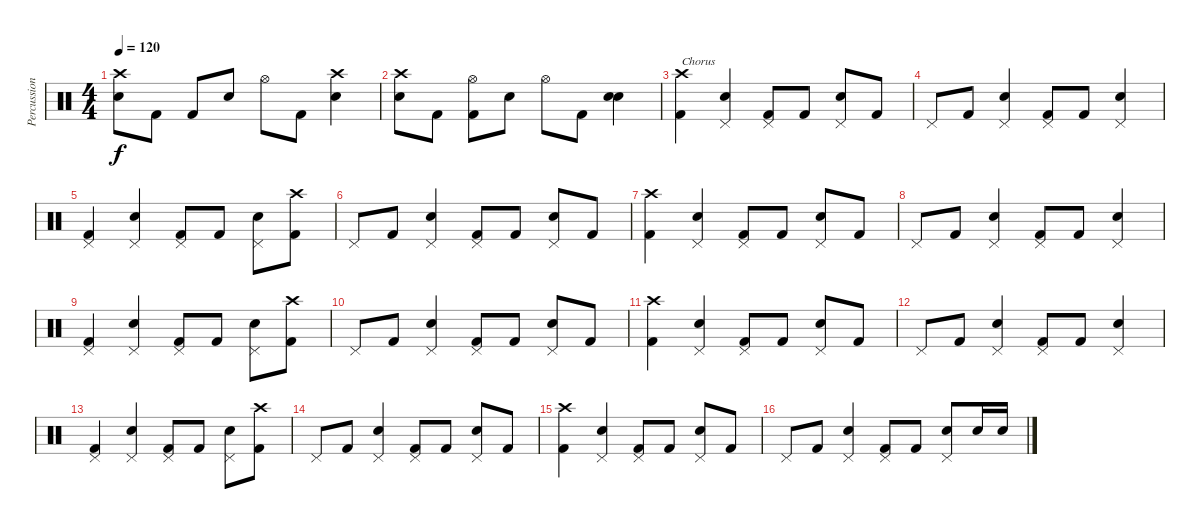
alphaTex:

\track ("Percussion" "Percussion") {instrument percussion}
\staff {score}
\articulation defaults
\ts (4 4)
\tempo 120
\clef neutral
\ks c
("Crash high (hit)" "Snare (hit) 2").8{dy f} "Kick (hit) 2".8 "Kick (hit) 2".8 "Snare (hit) 2".8 "Hi-Hat (open)".8 "Kick (hit) 2".8 ("Crash high (hit)" "Snare (hit) 2").4 |
("Crash high (hit)" "Snare (hit) 2").8 "Kick (hit) 2".8 ("Hi-Hat (open)" "Kick (hit) 2").8 "Snare (hit) 2".8 "Hi-Hat (open)".8 "Kick (hit) 2".8 ("Snare (hit) 2" "Snare (hit) 2").4 |
("Crash high (hit)" "Kick (hit) 2").4{txt "Chorus"} ("Pedal Hi-Hat (hit)" "Snare (hit) 2").4 ("Pedal Hi-Hat (hit)" "Kick (hit) 2").8 "Kick (hit) 2".8 ("Pedal Hi-Hat (hit)" "Snare (hit) 2").8 "Kick (hit) 2".8 |
"Pedal Hi-Hat (hit)".8 "Kick (hit) 2".8 ("Pedal Hi-Hat (hit)" "Snare (hit) 2").4 ("Pedal Hi-Hat (hit)" "Kick (hit) 2").8 "Kick (hit) 2".8 ("Pedal Hi-Hat (hit)" "Snare (hit) 2").4 |
("Pedal Hi-Hat (hit)" "Kick (hit) 2").4 ("Pedal Hi-Hat (hit)" "Snare (hit) 2").4 ("Pedal Hi-Hat (hit)" "Kick (hit) 2").8 "Kick (hit) 2".8 ("Pedal Hi-Hat (hit)" "Snare (hit) 2").8 ("Crash high (hit)" "Kick (hit) 2").8 |
"Pedal Hi-Hat (hit)".8 "Kick (hit) 2".8 ("Pedal Hi-Hat (hit)" "Snare (hit) 2").4 ("Pedal Hi-Hat (hit)" "Kick (hit) 2").8 "Kick (hit) 2".8 ("Pedal Hi-Hat (hit)" "Snare (hit) 2").8 "Kick (hit) 2".8 |
("Crash high (hit)" "Kick (hit) 2").4 ("Pedal Hi-Hat (hit)" "Snare (hit) 2").4 ("Pedal Hi-Hat (hit)" "Kick (hit) 2").8 "Kick (hit) 2".8 ("Pedal Hi-Hat (hit)" "Snare (hit) 2").8 "Kick (hit) 2".8 |
"Pedal Hi-Hat (hit)".8 "Kick (hit) 2".8 ("Pedal Hi-Hat (hit)" "Snare (hit) 2").4 ("Pedal Hi-Hat (hit)" "Kick (hit) 2").8 "Kick (hit) 2".8 ("Pedal Hi-Hat (hit)" "Snare (hit) 2").4 |
("Pedal Hi-Hat (hit)" "Kick (hit) 2").4 ("Pedal Hi-Hat (hit)" "Snare (hit) 2").4 ("Pedal Hi-Hat (hit)" "Kick (hit) 2").8 "Kick (hit) 2".8 ("Pedal Hi-Hat (hit)" "Snare (hit) 2").8 ("Crash high (hit)" "Kick (hit) 2").8 |
"Pedal Hi-Hat (hit)".8 "Kick (hit) 2".8 ("Pedal Hi-Hat (hit)" "Snare (hit) 2").4 ("Pedal Hi-Hat (hit)" "Kick (hit) 2").8 "Kick (hit) 2".8 ("Pedal Hi-Hat (hit)" "Snare (hit) 2").8 "Kick (hit) 2".8 |
("Crash high (hit)" "Kick (hit) 2").4 ("Pedal Hi-Hat (hit)" "Snare (hit) 2").4 ("Pedal Hi-Hat (hit)" "Kick (hit) 2").8 "Kick (hit) 2".8 ("Pedal Hi-Hat (hit)" "Snare (hit) 2").8 "Kick (hit) 2".8 |
"Pedal Hi-Hat (hit)".8 "Kick (hit) 2".8 ("Pedal Hi-Hat (hit)" "Snare (hit) 2").4 ("Pedal Hi-Hat (hit)" "Kick (hit) 2").8 "Kick (hit) 2".8 ("Pedal Hi-Hat (hit)" "Snare (hit) 2").4 |
("Pedal Hi-Hat (hit)" "Kick (hit) 2").4 ("Pedal Hi-Hat (hit)" "Snare (hit) 2").4 ("Pedal Hi-Hat (hit)" "Kick (hit) 2").8 "Kick (hit) 2".8 ("Pedal Hi-Hat (hit)" "Snare (hit) 2").8 ("Crash high (hit)" "Kick (hit) 2").8 |
"Pedal Hi-Hat (hit)".8 "Kick (hit) 2".8 ("Pedal Hi-Hat (hit)" "Snare (hit) 2").4 ("Pedal Hi-Hat (hit)" "Kick (hit) 2").8 "Kick (hit) 2".8 ("Pedal Hi-Hat (hit)" "Snare (hit) 2").8 "Kick (hit) 2".8 |
("Crash high (hit)" "Kick (hit) 2").4 ("Pedal Hi-Hat (hit)" "Snare (hit) 2").4 ("Pedal Hi-Hat (hit)" "Kick (hit) 2").8 "Kick (hit) 2".8 ("Pedal Hi-Hat (hit)" "Snare (hit) 2").8 "Kick (hit) 2".8 |
"Pedal Hi-Hat (hit)".8 "Kick (hit) 2".8 ("Pedal Hi-Hat (hit)" "Snare (hit) 2").4 ("Pedal Hi-Hat (hit)" "Kick (hit) 2").8 "Kick (hit) 2".8 ("Pedal Hi-Hat (hit)" "Snare (hit) 2").8 "Snare (hit) 2".16 "Snare (hit) 2".16
